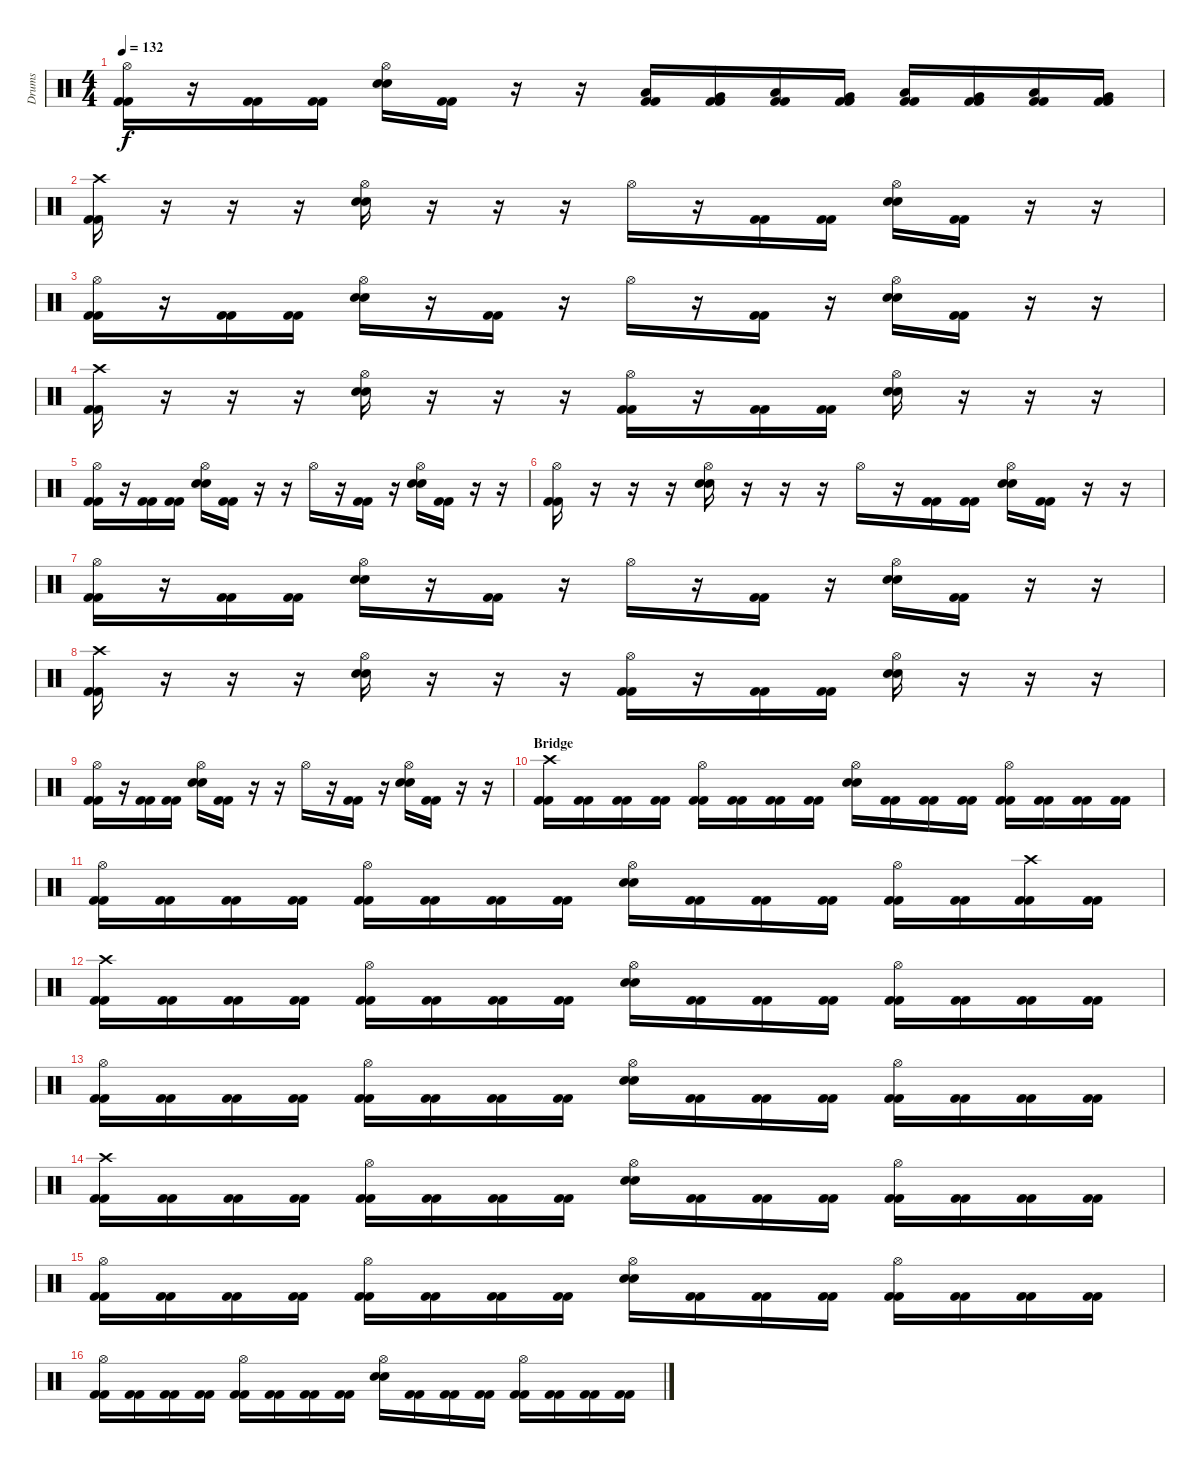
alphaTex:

\track ("Drums" "Drums") {instrument percussion}
\staff {score}
\articulation defaults
\ts (4 4)
\tempo 132
\clef neutral
\ks c
("Hi-Hat (open)" "Kick (hit) 2" "Kick (hit) 2").16{dy f} r.16 ("Kick (hit) 2" "Kick (hit) 2").16 ("Kick (hit) 2" "Kick (hit) 2").16 ("Hi-Hat (open)" "Snare (hit) 2" "Snare (hit) 2").16 ("Kick (hit) 2" "Kick (hit) 2").16 r.16 r.16 ("Low Tom (hit)" "Kick (hit) 2" "Kick (hit) 2").16 ("Very Low Tom (hit)" "Kick (hit) 2" "Kick (hit) 2").16 ("Low Tom (hit)" "Kick (hit) 2" "Kick (hit) 2").16 ("Very Low Tom (hit)" "Kick (hit) 2" "Kick (hit) 2").16 ("Low Tom (hit)" "Kick (hit) 2" "Kick (hit) 2").16 ("Very Low Tom (hit)" "Kick (hit) 2" "Kick (hit) 2").16 ("Low Tom (hit)" "Kick (hit) 2" "Kick (hit) 2").16 ("Very Low Tom (hit)" "Kick (hit) 2" "Kick (hit) 2").16 |
("Crash high (hit)" "Kick (hit) 2" "Kick (hit) 2").16 r.16 r.16 r.16 ("Hi-Hat (open)" "Snare (hit) 2" "Snare (hit) 2").16 r.16 r.16 r.16 "Hi-Hat (open)".16 r.16 ("Kick (hit) 2" "Kick (hit) 2").16 ("Kick (hit) 2" "Kick (hit) 2").16 ("Hi-Hat (open)" "Snare (hit) 2" "Snare (hit) 2").16 ("Kick (hit) 2" "Kick (hit) 2").16 r.16 r.16 |
("Hi-Hat (open)" "Kick (hit) 2" "Kick (hit) 2").16 r.16 ("Kick (hit) 2" "Kick (hit) 2").16 ("Kick (hit) 2" "Kick (hit) 2").16 ("Hi-Hat (open)" "Snare (hit) 2" "Snare (hit) 2").16 r.16 ("Kick (hit) 2" "Kick (hit) 2").16 r.16 "Hi-Hat (open)".16 r.16 ("Kick (hit) 2" "Kick (hit) 2").16 r.16 ("Hi-Hat (open)" "Snare (hit) 2" "Snare (hit) 2").16 ("Kick (hit) 2" "Kick (hit) 2").16 r.16 r.16 |
("Crash high (hit)" "Kick (hit) 2" "Kick (hit) 2").16 r.16 r.16 r.16 ("Hi-Hat (open)" "Snare (hit) 2" "Snare (hit) 2").16 r.16 r.16 r.16 ("Hi-Hat (open)" "Kick (hit) 2" "Kick (hit) 2").16 r.16 ("Kick (hit) 2" "Kick (hit) 2").16 ("Kick (hit) 2" "Kick (hit) 2").16 ("Hi-Hat (open)" "Snare (hit) 2" "Snare (hit) 2").16 r.16 r.16 r.16 |
("Hi-Hat (open)" "Kick (hit) 2" "Kick (hit) 2").16 r.16 ("Kick (hit) 2" "Kick (hit) 2").16 ("Kick (hit) 2" "Kick (hit) 2").16 ("Hi-Hat (open)" "Snare (hit) 2" "Snare (hit) 2").16 ("Kick (hit) 2" "Kick (hit) 2").16 r.16 r.16 "Hi-Hat (open)".16 r.16 ("Kick (hit) 2" "Kick (hit) 2").16 r.16 ("Hi-Hat (open)" "Snare (hit) 2" "Snare (hit) 2").16 ("Kick (hit) 2" "Kick (hit) 2").16 r.16 r.16 |
("Hi-Hat (open)" "Kick (hit) 2" "Kick (hit) 2").16 r.16 r.16 r.16 ("Hi-Hat (open)" "Snare (hit) 2" "Snare (hit) 2").16 r.16 r.16 r.16 "Hi-Hat (open)".16 r.16 ("Kick (hit) 2" "Kick (hit) 2").16 ("Kick (hit) 2" "Kick (hit) 2").16 ("Hi-Hat (open)" "Snare (hit) 2" "Snare (hit) 2").16 ("Kick (hit) 2" "Kick (hit) 2").16 r.16 r.16 |
("Hi-Hat (open)" "Kick (hit) 2" "Kick (hit) 2").16 r.16 ("Kick (hit) 2" "Kick (hit) 2").16 ("Kick (hit) 2" "Kick (hit) 2").16 ("Hi-Hat (open)" "Snare (hit) 2" "Snare (hit) 2").16 r.16 ("Kick (hit) 2" "Kick (hit) 2").16 r.16 "Hi-Hat (open)".16 r.16 ("Kick (hit) 2" "Kick (hit) 2").16 r.16 ("Hi-Hat (open)" "Snare (hit) 2" "Snare (hit) 2").16 ("Kick (hit) 2" "Kick (hit) 2").16 r.16 r.16 |
("Crash high (hit)" "Kick (hit) 2" "Kick (hit) 2").16 r.16 r.16 r.16 ("Hi-Hat (open)" "Snare (hit) 2" "Snare (hit) 2").16 r.16 r.16 r.16 ("Hi-Hat (open)" "Kick (hit) 2" "Kick (hit) 2").16 r.16 ("Kick (hit) 2" "Kick (hit) 2").16 ("Kick (hit) 2" "Kick (hit) 2").16 ("Hi-Hat (open)" "Snare (hit) 2" "Snare (hit) 2").16 r.16 r.16 r.16 |
("Hi-Hat (open)" "Kick (hit) 2" "Kick (hit) 2").16 r.16 ("Kick (hit) 2" "Kick (hit) 2").16 ("Kick (hit) 2" "Kick (hit) 2").16 ("Hi-Hat (open)" "Snare (hit) 2" "Snare (hit) 2").16 ("Kick (hit) 2" "Kick (hit) 2").16 r.16 r.16 "Hi-Hat (open)".16 r.16 ("Kick (hit) 2" "Kick (hit) 2").16 r.16 ("Hi-Hat (open)" "Snare (hit) 2" "Snare (hit) 2").16 ("Kick (hit) 2" "Kick (hit) 2").16 r.16 r.16 |
\section ("" "Bridge")
("Crash high (hit)" "Kick (hit) 2" "Kick (hit) 2").16 ("Kick (hit) 2" "Kick (hit) 2").16 ("Kick (hit) 2" "Kick (hit) 2").16 ("Kick (hit) 2" "Kick (hit) 2").16 ("Hi-Hat (open)" "Kick (hit) 2" "Kick (hit) 2").16 ("Kick (hit) 2" "Kick (hit) 2").16 ("Kick (hit) 2" "Kick (hit) 2").16 ("Kick (hit) 2" "Kick (hit) 2").16 ("Hi-Hat (open)" "Snare (hit) 2" "Snare (hit) 2").16 ("Kick (hit) 2" "Kick (hit) 2").16 ("Kick (hit) 2" "Kick (hit) 2").16 ("Kick (hit) 2" "Kick (hit) 2").16 ("Hi-Hat (open)" "Kick (hit) 2" "Kick (hit) 2").16 ("Kick (hit) 2" "Kick (hit) 2").16 ("Kick (hit) 2" "Kick (hit) 2").16 ("Kick (hit) 2" "Kick (hit) 2").16 |
("Hi-Hat (open)" "Kick (hit) 2" "Kick (hit) 2").16 ("Kick (hit) 2" "Kick (hit) 2").16 ("Kick (hit) 2" "Kick (hit) 2").16 ("Kick (hit) 2" "Kick (hit) 2").16 ("Hi-Hat (open)" "Kick (hit) 2" "Kick (hit) 2").16 ("Kick (hit) 2" "Kick (hit) 2").16 ("Kick (hit) 2" "Kick (hit) 2").16 ("Kick (hit) 2" "Kick (hit) 2").16 ("Hi-Hat (open)" "Snare (hit) 2" "Snare (hit) 2").16 ("Kick (hit) 2" "Kick (hit) 2").16 ("Kick (hit) 2" "Kick (hit) 2").16 ("Kick (hit) 2" "Kick (hit) 2").16 ("Hi-Hat (open)" "Kick (hit) 2" "Kick (hit) 2").16 ("Kick (hit) 2" "Kick (hit) 2").16 ("Crash high (hit)" "Kick (hit) 2" "Kick (hit) 2").16 ("Kick (hit) 2" "Kick (hit) 2").16 |
("Crash high (hit)" "Kick (hit) 2" "Kick (hit) 2").16 ("Kick (hit) 2" "Kick (hit) 2").16 ("Kick (hit) 2" "Kick (hit) 2").16 ("Kick (hit) 2" "Kick (hit) 2").16 ("Hi-Hat (open)" "Kick (hit) 2" "Kick (hit) 2").16 ("Kick (hit) 2" "Kick (hit) 2").16 ("Kick (hit) 2" "Kick (hit) 2").16 ("Kick (hit) 2" "Kick (hit) 2").16 ("Hi-Hat (open)" "Snare (hit) 2" "Snare (hit) 2").16 ("Kick (hit) 2" "Kick (hit) 2").16 ("Kick (hit) 2" "Kick (hit) 2").16 ("Kick (hit) 2" "Kick (hit) 2").16 ("Hi-Hat (open)" "Kick (hit) 2" "Kick (hit) 2").16 ("Kick (hit) 2" "Kick (hit) 2").16 ("Kick (hit) 2" "Kick (hit) 2").16 ("Kick (hit) 2" "Kick (hit) 2").16 |
("Hi-Hat (open)" "Kick (hit) 2" "Kick (hit) 2").16 ("Kick (hit) 2" "Kick (hit) 2").16 ("Kick (hit) 2" "Kick (hit) 2").16 ("Kick (hit) 2" "Kick (hit) 2").16 ("Hi-Hat (open)" "Kick (hit) 2" "Kick (hit) 2").16 ("Kick (hit) 2" "Kick (hit) 2").16 ("Kick (hit) 2" "Kick (hit) 2").16 ("Kick (hit) 2" "Kick (hit) 2").16 ("Hi-Hat (open)" "Snare (hit) 2" "Snare (hit) 2").16 ("Kick (hit) 2" "Kick (hit) 2").16 ("Kick (hit) 2" "Kick (hit) 2").16 ("Kick (hit) 2" "Kick (hit) 2").16 ("Hi-Hat (open)" "Kick (hit) 2" "Kick (hit) 2").16 ("Kick (hit) 2" "Kick (hit) 2").16 ("Kick (hit) 2" "Kick (hit) 2").16 ("Kick (hit) 2" "Kick (hit) 2").16 |
("Crash high (hit)" "Kick (hit) 2" "Kick (hit) 2").16 ("Kick (hit) 2" "Kick (hit) 2").16 ("Kick (hit) 2" "Kick (hit) 2").16 ("Kick (hit) 2" "Kick (hit) 2").16 ("Hi-Hat (open)" "Kick (hit) 2" "Kick (hit) 2").16 ("Kick (hit) 2" "Kick (hit) 2").16 ("Kick (hit) 2" "Kick (hit) 2").16 ("Kick (hit) 2" "Kick (hit) 2").16 ("Hi-Hat (open)" "Snare (hit) 2" "Snare (hit) 2").16 ("Kick (hit) 2" "Kick (hit) 2").16 ("Kick (hit) 2" "Kick (hit) 2").16 ("Kick (hit) 2" "Kick (hit) 2").16 ("Hi-Hat (open)" "Kick (hit) 2" "Kick (hit) 2").16 ("Kick (hit) 2" "Kick (hit) 2").16 ("Kick (hit) 2" "Kick (hit) 2").16 ("Kick (hit) 2" "Kick (hit) 2").16 |
("Hi-Hat (open)" "Kick (hit) 2" "Kick (hit) 2").16 ("Kick (hit) 2" "Kick (hit) 2").16 ("Kick (hit) 2" "Kick (hit) 2").16 ("Kick (hit) 2" "Kick (hit) 2").16 ("Hi-Hat (open)" "Kick (hit) 2" "Kick (hit) 2").16 ("Kick (hit) 2" "Kick (hit) 2").16 ("Kick (hit) 2" "Kick (hit) 2").16 ("Kick (hit) 2" "Kick (hit) 2").16 ("Hi-Hat (open)" "Snare (hit) 2" "Snare (hit) 2").16 ("Kick (hit) 2" "Kick (hit) 2").16 ("Kick (hit) 2" "Kick (hit) 2").16 ("Kick (hit) 2" "Kick (hit) 2").16 ("Hi-Hat (open)" "Kick (hit) 2" "Kick (hit) 2").16 ("Kick (hit) 2" "Kick (hit) 2").16 ("Kick (hit) 2" "Kick (hit) 2").16 ("Kick (hit) 2" "Kick (hit) 2").16 |
("Hi-Hat (open)" "Kick (hit) 2" "Kick (hit) 2").16 ("Kick (hit) 2" "Kick (hit) 2").16 ("Kick (hit) 2" "Kick (hit) 2").16 ("Kick (hit) 2" "Kick (hit) 2").16 ("Hi-Hat (open)" "Kick (hit) 2" "Kick (hit) 2").16 ("Kick (hit) 2" "Kick (hit) 2").16 ("Kick (hit) 2" "Kick (hit) 2").16 ("Kick (hit) 2" "Kick (hit) 2").16 ("Hi-Hat (open)" "Snare (hit) 2" "Snare (hit) 2").16 ("Kick (hit) 2" "Kick (hit) 2").16 ("Kick (hit) 2" "Kick (hit) 2").16 ("Kick (hit) 2" "Kick (hit) 2").16 ("Hi-Hat (open)" "Kick (hit) 2" "Kick (hit) 2").16 ("Kick (hit) 2" "Kick (hit) 2").16 ("Kick (hit) 2" "Kick (hit) 2").16 ("Kick (hit) 2" "Kick (hit) 2").16
